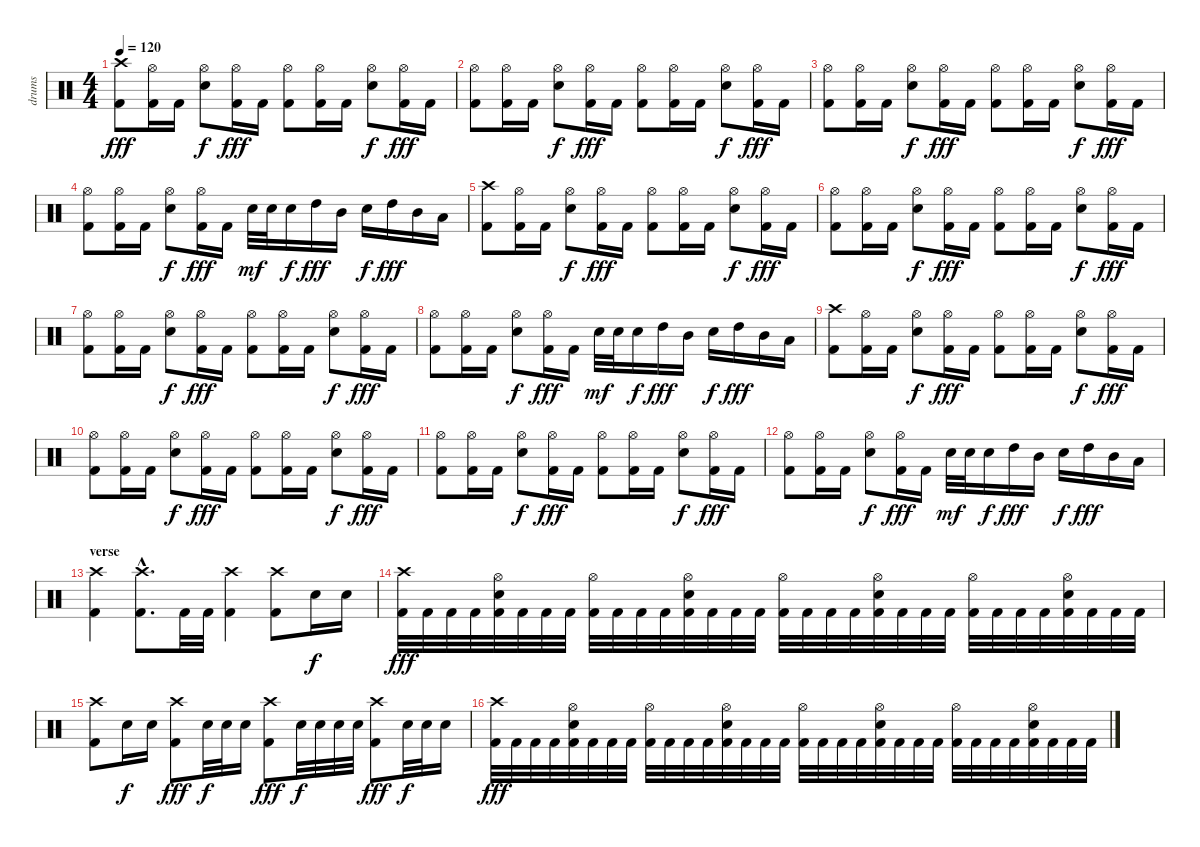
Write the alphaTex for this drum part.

\track ("drums" "drums") {instrument percussion}
\staff {score}
\articulation defaults
\ts (4 4)
\tempo 120
\clef neutral
\ks c
("Crash high (hit)" "Kick (hit) 2").8{dy fff} ("Hi-Hat (open)" "Kick (hit) 2").16 "Kick (hit) 2".16 ("Hi-Hat (open)" "Snare (hit) 2").8{dy f} ("Hi-Hat (open)" "Kick (hit) 2").16{dy fff} "Kick (hit) 2".16 ("Hi-Hat (open)" "Kick (hit) 2").8 ("Hi-Hat (open)" "Kick (hit) 2").16 "Kick (hit) 2".16 ("Hi-Hat (open)" "Snare (hit) 2").8{dy f} ("Hi-Hat (open)" "Kick (hit) 2").16{dy fff} "Kick (hit) 2".16 |
("Hi-Hat (open)" "Kick (hit) 2").8 ("Hi-Hat (open)" "Kick (hit) 2").16 "Kick (hit) 2".16 ("Hi-Hat (open)" "Snare (hit) 2").8{dy f} ("Hi-Hat (open)" "Kick (hit) 2").16{dy fff} "Kick (hit) 2".16 ("Hi-Hat (open)" "Kick (hit) 2").8 ("Hi-Hat (open)" "Kick (hit) 2").16 "Kick (hit) 2".16 ("Hi-Hat (open)" "Snare (hit) 2").8{dy f} ("Hi-Hat (open)" "Kick (hit) 2").16{dy fff} "Kick (hit) 2".16 |
("Hi-Hat (open)" "Kick (hit) 2").8 ("Hi-Hat (open)" "Kick (hit) 2").16 "Kick (hit) 2".16 ("Hi-Hat (open)" "Snare (hit) 2").8{dy f} ("Hi-Hat (open)" "Kick (hit) 2").16{dy fff} "Kick (hit) 2".16 ("Hi-Hat (open)" "Kick (hit) 2").8 ("Hi-Hat (open)" "Kick (hit) 2").16 "Kick (hit) 2".16 ("Hi-Hat (open)" "Snare (hit) 2").8{dy f} ("Hi-Hat (open)" "Kick (hit) 2").16{dy fff} "Kick (hit) 2".16 |
("Hi-Hat (open)" "Kick (hit) 2").8 ("Hi-Hat (open)" "Kick (hit) 2").16 "Kick (hit) 2".16 ("Hi-Hat (open)" "Snare (hit) 2").8{dy f} ("Hi-Hat (open)" "Kick (hit) 2").16{dy fff} "Kick (hit) 2".16 "Snare (hit) 2".32{dy mf} "Snare (hit) 2".32 "Snare (hit) 2".16{dy f} "High Tom (hit)".16{dy fff} "Mid Tom (hit)".16 "Snare (hit) 2".16{dy f} "High Tom (hit)".16{dy fff} "Mid Tom (hit)".16 "Low Tom (hit)".16 |
("Crash high (hit)" "Kick (hit) 2").8 ("Hi-Hat (open)" "Kick (hit) 2").16 "Kick (hit) 2".16 ("Hi-Hat (open)" "Snare (hit) 2").8{dy f} ("Hi-Hat (open)" "Kick (hit) 2").16{dy fff} "Kick (hit) 2".16 ("Hi-Hat (open)" "Kick (hit) 2").8 ("Hi-Hat (open)" "Kick (hit) 2").16 "Kick (hit) 2".16 ("Hi-Hat (open)" "Snare (hit) 2").8{dy f} ("Hi-Hat (open)" "Kick (hit) 2").16{dy fff} "Kick (hit) 2".16 |
("Hi-Hat (open)" "Kick (hit) 2").8 ("Hi-Hat (open)" "Kick (hit) 2").16 "Kick (hit) 2".16 ("Hi-Hat (open)" "Snare (hit) 2").8{dy f} ("Hi-Hat (open)" "Kick (hit) 2").16{dy fff} "Kick (hit) 2".16 ("Hi-Hat (open)" "Kick (hit) 2").8 ("Hi-Hat (open)" "Kick (hit) 2").16 "Kick (hit) 2".16 ("Hi-Hat (open)" "Snare (hit) 2").8{dy f} ("Hi-Hat (open)" "Kick (hit) 2").16{dy fff} "Kick (hit) 2".16 |
("Hi-Hat (open)" "Kick (hit) 2").8 ("Hi-Hat (open)" "Kick (hit) 2").16 "Kick (hit) 2".16 ("Hi-Hat (open)" "Snare (hit) 2").8{dy f} ("Hi-Hat (open)" "Kick (hit) 2").16{dy fff} "Kick (hit) 2".16 ("Hi-Hat (open)" "Kick (hit) 2").8 ("Hi-Hat (open)" "Kick (hit) 2").16 "Kick (hit) 2".16 ("Hi-Hat (open)" "Snare (hit) 2").8{dy f} ("Hi-Hat (open)" "Kick (hit) 2").16{dy fff} "Kick (hit) 2".16 |
("Hi-Hat (open)" "Kick (hit) 2").8 ("Hi-Hat (open)" "Kick (hit) 2").16 "Kick (hit) 2".16 ("Hi-Hat (open)" "Snare (hit) 2").8{dy f} ("Hi-Hat (open)" "Kick (hit) 2").16{dy fff} "Kick (hit) 2".16 "Snare (hit) 2".32{dy mf} "Snare (hit) 2".32 "Snare (hit) 2".16{dy f} "High Tom (hit)".16{dy fff} "Mid Tom (hit)".16 "Snare (hit) 2".16{dy f} "High Tom (hit)".16{dy fff} "Mid Tom (hit)".16 "Low Tom (hit)".16 |
("Crash high (hit)" "Kick (hit) 2").8 ("Hi-Hat (open)" "Kick (hit) 2").16 "Kick (hit) 2".16 ("Hi-Hat (open)" "Snare (hit) 2").8{dy f} ("Hi-Hat (open)" "Kick (hit) 2").16{dy fff} "Kick (hit) 2".16 ("Hi-Hat (open)" "Kick (hit) 2").8 ("Hi-Hat (open)" "Kick (hit) 2").16 "Kick (hit) 2".16 ("Hi-Hat (open)" "Snare (hit) 2").8{dy f} ("Hi-Hat (open)" "Kick (hit) 2").16{dy fff} "Kick (hit) 2".16 |
("Hi-Hat (open)" "Kick (hit) 2").8 ("Hi-Hat (open)" "Kick (hit) 2").16 "Kick (hit) 2".16 ("Hi-Hat (open)" "Snare (hit) 2").8{dy f} ("Hi-Hat (open)" "Kick (hit) 2").16{dy fff} "Kick (hit) 2".16 ("Hi-Hat (open)" "Kick (hit) 2").8 ("Hi-Hat (open)" "Kick (hit) 2").16 "Kick (hit) 2".16 ("Hi-Hat (open)" "Snare (hit) 2").8{dy f} ("Hi-Hat (open)" "Kick (hit) 2").16{dy fff} "Kick (hit) 2".16 |
("Hi-Hat (open)" "Kick (hit) 2").8 ("Hi-Hat (open)" "Kick (hit) 2").16 "Kick (hit) 2".16 ("Hi-Hat (open)" "Snare (hit) 2").8{dy f} ("Hi-Hat (open)" "Kick (hit) 2").16{dy fff} "Kick (hit) 2".16 ("Hi-Hat (open)" "Kick (hit) 2").8 ("Hi-Hat (open)" "Kick (hit) 2").16 "Kick (hit) 2".16 ("Hi-Hat (open)" "Snare (hit) 2").8{dy f} ("Hi-Hat (open)" "Kick (hit) 2").16{dy fff} "Kick (hit) 2".16 |
("Hi-Hat (open)" "Kick (hit) 2").8 ("Hi-Hat (open)" "Kick (hit) 2").16 "Kick (hit) 2".16 ("Hi-Hat (open)" "Snare (hit) 2").8{dy f} ("Hi-Hat (open)" "Kick (hit) 2").16{dy fff} "Kick (hit) 2".16 "Snare (hit) 2".32{dy mf} "Snare (hit) 2".32 "Snare (hit) 2".16{dy f} "High Tom (hit)".16{dy fff} "Mid Tom (hit)".16 "Snare (hit) 2".16{dy f} "High Tom (hit)".16{dy fff} "Mid Tom (hit)".16 "Low Tom (hit)".16 |
\section ("" "verse")
("Crash high (hit)" "Kick (hit) 2").4 ("Crash high (hit)"{hac} "Kick (hit) 2"{hac}).8{d} "Kick (hit) 2".32 "Kick (hit) 2".32 ("Crash high (hit)" "Kick (hit) 2").4 ("Crash high (hit)" "Kick (hit) 2").8 "Snare (hit) 2".16{dy f} "Snare (hit) 2".16 |
("Crash high (hit)" "Kick (hit) 2").32{dy fff} "Kick (hit) 2".32 "Kick (hit) 2".32 "Kick (hit) 2".32 ("Hi-Hat (open)" "Snare (hit) 2" "Kick (hit) 2").32 "Kick (hit) 2".32 "Kick (hit) 2".32 "Kick (hit) 2".32 ("Hi-Hat (open)" "Kick (hit) 2").32 "Kick (hit) 2".32 "Kick (hit) 2".32 "Kick (hit) 2".32 ("Hi-Hat (open)" "Snare (hit) 2" "Kick (hit) 2").32 "Kick (hit) 2".32 "Kick (hit) 2".32 "Kick (hit) 2".32 ("Hi-Hat (open)" "Kick (hit) 2").32 "Kick (hit) 2".32 "Kick (hit) 2".32 "Kick (hit) 2".32 ("Hi-Hat (open)" "Snare (hit) 2" "Kick (hit) 2").32 "Kick (hit) 2".32 "Kick (hit) 2".32 "Kick (hit) 2".32 ("Hi-Hat (open)" "Kick (hit) 2").32 "Kick (hit) 2".32 "Kick (hit) 2".32 "Kick (hit) 2".32 ("Hi-Hat (open)" "Snare (hit) 2" "Kick (hit) 2").32 "Kick (hit) 2".32 "Kick (hit) 2".32 "Kick (hit) 2".32 |
("Crash high (hit)" "Kick (hit) 2").8 "Snare (hit) 2".16{dy f} "Snare (hit) 2".16 ("Crash high (hit)" "Kick (hit) 2").8{dy fff} "Snare (hit) 2".32{dy f} "Snare (hit) 2".32 "Snare (hit) 2".16 ("Crash high (hit)" "Kick (hit) 2").8{dy fff} "Snare (hit) 2".32{dy f} "Snare (hit) 2".32 "Snare (hit) 2".32 "Snare (hit) 2".32 ("Crash high (hit)" "Kick (hit) 2").8{dy fff} "Snare (hit) 2".32{dy f} "Snare (hit) 2".32 "Snare (hit) 2".16 |
("Crash high (hit)" "Kick (hit) 2").32{dy fff} "Kick (hit) 2".32 "Kick (hit) 2".32 "Kick (hit) 2".32 ("Hi-Hat (open)" "Snare (hit) 2" "Kick (hit) 2").32 "Kick (hit) 2".32 "Kick (hit) 2".32 "Kick (hit) 2".32 ("Hi-Hat (open)" "Kick (hit) 2").32 "Kick (hit) 2".32 "Kick (hit) 2".32 "Kick (hit) 2".32 ("Hi-Hat (open)" "Snare (hit) 2" "Kick (hit) 2").32 "Kick (hit) 2".32 "Kick (hit) 2".32 "Kick (hit) 2".32 ("Hi-Hat (open)" "Kick (hit) 2").32 "Kick (hit) 2".32 "Kick (hit) 2".32 "Kick (hit) 2".32 ("Hi-Hat (open)" "Snare (hit) 2" "Kick (hit) 2").32 "Kick (hit) 2".32 "Kick (hit) 2".32 "Kick (hit) 2".32 ("Hi-Hat (open)" "Kick (hit) 2").32 "Kick (hit) 2".32 "Kick (hit) 2".32 "Kick (hit) 2".32 ("Hi-Hat (open)" "Snare (hit) 2" "Kick (hit) 2").32 "Kick (hit) 2".32 "Kick (hit) 2".32 "Kick (hit) 2".32
